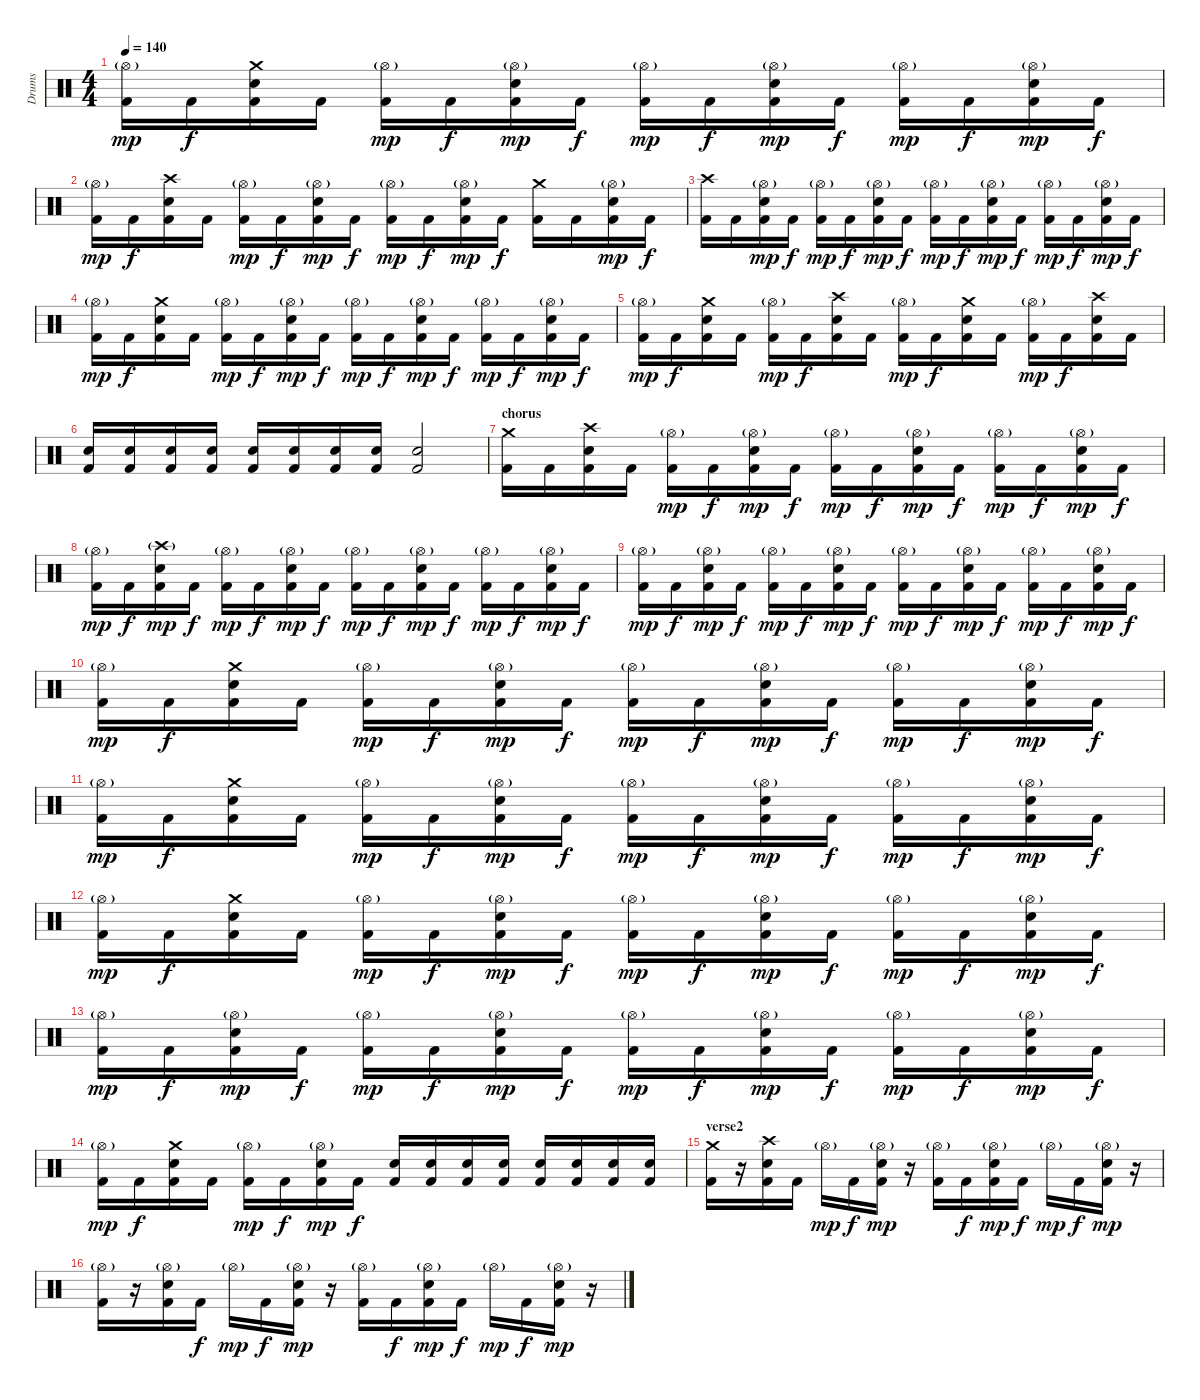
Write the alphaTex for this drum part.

\track ("Drums" "Drums") {instrument percussion}
\staff {score}
\articulation defaults
\ts (4 4)
\tempo 140
\clef neutral
\ks c
("Hi-Hat (open)"{g} "Kick (hit) 2").16{dy mp} "Kick (hit) 2".16{dy f} ("Crash medium (hit)" "Electric Snare (hit)" "Kick (hit) 2").16 "Kick (hit) 2".16 ("Hi-Hat (open)"{g} "Kick (hit) 2").16{dy mp} "Kick (hit) 2".16{dy f} ("Hi-Hat (open)"{g} "Electric Snare (hit)" "Kick (hit) 2").16{dy mp} "Kick (hit) 2".16{dy f} ("Hi-Hat (open)"{g} "Kick (hit) 2").16{dy mp} "Kick (hit) 2".16{dy f} ("Hi-Hat (open)"{g} "Electric Snare (hit)" "Kick (hit) 2").16{dy mp} "Kick (hit) 2".16{dy f} ("Hi-Hat (open)"{g} "Kick (hit) 2").16{dy mp} "Kick (hit) 2".16{dy f} ("Hi-Hat (open)"{g} "Electric Snare (hit)" "Kick (hit) 2").16{dy mp} "Kick (hit) 2".16{dy f} |
("Hi-Hat (open)"{g} "Kick (hit) 2").16{dy mp} "Kick (hit) 2".16{dy f} ("Crash high (hit)" "Electric Snare (hit)" "Kick (hit) 2").16 "Kick (hit) 2".16 ("Hi-Hat (open)"{g} "Kick (hit) 2").16{dy mp} "Kick (hit) 2".16{dy f} ("Hi-Hat (open)"{g} "Electric Snare (hit)" "Kick (hit) 2").16{dy mp} "Kick (hit) 2".16{dy f} ("Hi-Hat (open)"{g} "Kick (hit) 2").16{dy mp} "Kick (hit) 2".16{dy f} ("Hi-Hat (open)"{g} "Electric Snare (hit)" "Kick (hit) 2").16{dy mp} "Kick (hit) 2".16{dy f} ("Crash medium (hit)" "Kick (hit) 2").16 "Kick (hit) 2".16 ("Hi-Hat (open)"{g} "Electric Snare (hit)" "Kick (hit) 2").16{dy mp} "Kick (hit) 2".16{dy f} |
("Crash high (hit)" "Kick (hit) 2").16 "Kick (hit) 2".16 ("Hi-Hat (open)"{g} "Electric Snare (hit)" "Kick (hit) 2").16{dy mp} "Kick (hit) 2".16{dy f} ("Hi-Hat (open)"{g} "Kick (hit) 2").16{dy mp} "Kick (hit) 2".16{dy f} ("Hi-Hat (open)"{g} "Electric Snare (hit)" "Kick (hit) 2").16{dy mp} "Kick (hit) 2".16{dy f} ("Hi-Hat (open)"{g} "Kick (hit) 2").16{dy mp} "Kick (hit) 2".16{dy f} ("Hi-Hat (open)"{g} "Electric Snare (hit)" "Kick (hit) 2").16{dy mp} "Kick (hit) 2".16{dy f} ("Hi-Hat (open)"{g} "Kick (hit) 2").16{dy mp} "Kick (hit) 2".16{dy f} ("Hi-Hat (open)"{g} "Electric Snare (hit)" "Kick (hit) 2").16{dy mp} "Kick (hit) 2".16{dy f} |
("Hi-Hat (open)"{g} "Kick (hit) 2").16{dy mp} "Kick (hit) 2".16{dy f} ("Crash medium (hit)" "Electric Snare (hit)" "Kick (hit) 2").16 "Kick (hit) 2".16 ("Hi-Hat (open)"{g} "Kick (hit) 2").16{dy mp} "Kick (hit) 2".16{dy f} ("Hi-Hat (open)"{g} "Electric Snare (hit)" "Kick (hit) 2").16{dy mp} "Kick (hit) 2".16{dy f} ("Hi-Hat (open)"{g} "Kick (hit) 2").16{dy mp} "Kick (hit) 2".16{dy f} ("Hi-Hat (open)"{g} "Electric Snare (hit)" "Kick (hit) 2").16{dy mp} "Kick (hit) 2".16{dy f} ("Hi-Hat (open)"{g} "Kick (hit) 2").16{dy mp} "Kick (hit) 2".16{dy f} ("Hi-Hat (open)"{g} "Electric Snare (hit)" "Kick (hit) 2").16{dy mp} "Kick (hit) 2".16{dy f} |
("Hi-Hat (open)"{g} "Kick (hit) 2").16{dy mp} "Kick (hit) 2".16{dy f} ("Crash medium (hit)" "Electric Snare (hit)" "Kick (hit) 2").16 "Kick (hit) 2".16 ("Hi-Hat (open)"{g} "Kick (hit) 2").16{dy mp} "Kick (hit) 2".16{dy f} ("Crash high (hit)" "Electric Snare (hit)" "Kick (hit) 2").16 "Kick (hit) 2".16 ("Hi-Hat (open)"{g} "Kick (hit) 2").16{dy mp} "Kick (hit) 2".16{dy f} ("Crash medium (hit)" "Electric Snare (hit)" "Kick (hit) 2").16 "Kick (hit) 2".16 ("Hi-Hat (open)"{g} "Kick (hit) 2").16{dy mp} "Kick (hit) 2".16{dy f} ("Crash high (hit)" "Electric Snare (hit)" "Kick (hit) 2").16 "Kick (hit) 2".16 |
("Electric Snare (hit)" "Kick (hit) 2").16 ("Electric Snare (hit)" "Kick (hit) 2").16 ("Electric Snare (hit)" "Kick (hit) 2").16 ("Electric Snare (hit)" "Kick (hit) 2").16 ("Electric Snare (hit)" "Kick (hit) 2").16 ("Electric Snare (hit)" "Kick (hit) 2").16 ("Electric Snare (hit)" "Kick (hit) 2").16 ("Electric Snare (hit)" "Kick (hit) 2").16 ("Electric Snare (hit)" "Kick (hit) 2").2 |
\section ("" "chorus")
("Crash medium (hit)" "Kick (hit) 2").16 "Kick (hit) 2".16 ("Crash high (hit)" "Electric Snare (hit)" "Kick (hit) 2").16 "Kick (hit) 2".16 ("Hi-Hat (open)"{g} "Kick (hit) 2").16{dy mp} "Kick (hit) 2".16{dy f} ("Hi-Hat (open)"{g} "Electric Snare (hit)" "Kick (hit) 2").16{dy mp} "Kick (hit) 2".16{dy f} ("Hi-Hat (open)"{g} "Kick (hit) 2").16{dy mp} "Kick (hit) 2".16{dy f} ("Hi-Hat (open)"{g} "Electric Snare (hit)" "Kick (hit) 2").16{dy mp} "Kick (hit) 2".16{dy f} ("Hi-Hat (open)"{g} "Kick (hit) 2").16{dy mp} "Kick (hit) 2".16{dy f} ("Hi-Hat (open)"{g} "Electric Snare (hit)" "Kick (hit) 2").16{dy mp} "Kick (hit) 2".16{dy f} |
("Hi-Hat (open)"{g} "Kick (hit) 2").16{dy mp} "Kick (hit) 2".16{dy f} ("Crash high (hit)"{g} "Electric Snare (hit)" "Kick (hit) 2").16{dy mp} "Kick (hit) 2".16{dy f} ("Hi-Hat (open)"{g} "Kick (hit) 2").16{dy mp} "Kick (hit) 2".16{dy f} ("Hi-Hat (open)"{g} "Electric Snare (hit)" "Kick (hit) 2").16{dy mp} "Kick (hit) 2".16{dy f} ("Hi-Hat (open)"{g} "Kick (hit) 2").16{dy mp} "Kick (hit) 2".16{dy f} ("Hi-Hat (open)"{g} "Electric Snare (hit)" "Kick (hit) 2").16{dy mp} "Kick (hit) 2".16{dy f} ("Hi-Hat (open)"{g} "Kick (hit) 2").16{dy mp} "Kick (hit) 2".16{dy f} ("Hi-Hat (open)"{g} "Electric Snare (hit)" "Kick (hit) 2").16{dy mp} "Kick (hit) 2".16{dy f} |
("Hi-Hat (open)"{g} "Kick (hit) 2").16{dy mp} "Kick (hit) 2".16{dy f} ("Hi-Hat (open)"{g} "Electric Snare (hit)" "Kick (hit) 2").16{dy mp} "Kick (hit) 2".16{dy f} ("Hi-Hat (open)"{g} "Kick (hit) 2").16{dy mp} "Kick (hit) 2".16{dy f} ("Hi-Hat (open)"{g} "Electric Snare (hit)" "Kick (hit) 2").16{dy mp} "Kick (hit) 2".16{dy f} ("Hi-Hat (open)"{g} "Kick (hit) 2").16{dy mp} "Kick (hit) 2".16{dy f} ("Hi-Hat (open)"{g} "Electric Snare (hit)" "Kick (hit) 2").16{dy mp} "Kick (hit) 2".16{dy f} ("Hi-Hat (open)"{g} "Kick (hit) 2").16{dy mp} "Kick (hit) 2".16{dy f} ("Hi-Hat (open)"{g} "Electric Snare (hit)" "Kick (hit) 2").16{dy mp} "Kick (hit) 2".16{dy f} |
("Hi-Hat (open)"{g} "Kick (hit) 2").16{dy mp} "Kick (hit) 2".16{dy f} ("Crash medium (hit)" "Electric Snare (hit)" "Kick (hit) 2").16 "Kick (hit) 2".16 ("Hi-Hat (open)"{g} "Kick (hit) 2").16{dy mp} "Kick (hit) 2".16{dy f} ("Hi-Hat (open)"{g} "Electric Snare (hit)" "Kick (hit) 2").16{dy mp} "Kick (hit) 2".16{dy f} ("Hi-Hat (open)"{g} "Kick (hit) 2").16{dy mp} "Kick (hit) 2".16{dy f} ("Hi-Hat (open)"{g} "Electric Snare (hit)" "Kick (hit) 2").16{dy mp} "Kick (hit) 2".16{dy f} ("Hi-Hat (open)"{g} "Kick (hit) 2").16{dy mp} "Kick (hit) 2".16{dy f} ("Hi-Hat (open)"{g} "Electric Snare (hit)" "Kick (hit) 2").16{dy mp} "Kick (hit) 2".16{dy f} |
("Hi-Hat (open)"{g} "Kick (hit) 2").16{dy mp} "Kick (hit) 2".16{dy f} ("Crash medium (hit)" "Electric Snare (hit)" "Kick (hit) 2").16 "Kick (hit) 2".16 ("Hi-Hat (open)"{g} "Kick (hit) 2").16{dy mp} "Kick (hit) 2".16{dy f} ("Hi-Hat (open)"{g} "Electric Snare (hit)" "Kick (hit) 2").16{dy mp} "Kick (hit) 2".16{dy f} ("Hi-Hat (open)"{g} "Kick (hit) 2").16{dy mp} "Kick (hit) 2".16{dy f} ("Hi-Hat (open)"{g} "Electric Snare (hit)" "Kick (hit) 2").16{dy mp} "Kick (hit) 2".16{dy f} ("Hi-Hat (open)"{g} "Kick (hit) 2").16{dy mp} "Kick (hit) 2".16{dy f} ("Hi-Hat (open)"{g} "Electric Snare (hit)" "Kick (hit) 2").16{dy mp} "Kick (hit) 2".16{dy f} |
("Hi-Hat (open)"{g} "Kick (hit) 2").16{dy mp} "Kick (hit) 2".16{dy f} ("Crash medium (hit)" "Electric Snare (hit)" "Kick (hit) 2").16 "Kick (hit) 2".16 ("Hi-Hat (open)"{g} "Kick (hit) 2").16{dy mp} "Kick (hit) 2".16{dy f} ("Hi-Hat (open)"{g} "Electric Snare (hit)" "Kick (hit) 2").16{dy mp} "Kick (hit) 2".16{dy f} ("Hi-Hat (open)"{g} "Kick (hit) 2").16{dy mp} "Kick (hit) 2".16{dy f} ("Hi-Hat (open)"{g} "Electric Snare (hit)" "Kick (hit) 2").16{dy mp} "Kick (hit) 2".16{dy f} ("Hi-Hat (open)"{g} "Kick (hit) 2").16{dy mp} "Kick (hit) 2".16{dy f} ("Hi-Hat (open)"{g} "Electric Snare (hit)" "Kick (hit) 2").16{dy mp} "Kick (hit) 2".16{dy f} |
("Hi-Hat (open)"{g} "Kick (hit) 2").16{dy mp} "Kick (hit) 2".16{dy f} ("Hi-Hat (open)"{g} "Electric Snare (hit)" "Kick (hit) 2").16{dy mp} "Kick (hit) 2".16{dy f} ("Hi-Hat (open)"{g} "Kick (hit) 2").16{dy mp} "Kick (hit) 2".16{dy f} ("Hi-Hat (open)"{g} "Electric Snare (hit)" "Kick (hit) 2").16{dy mp} "Kick (hit) 2".16{dy f} ("Hi-Hat (open)"{g} "Kick (hit) 2").16{dy mp} "Kick (hit) 2".16{dy f} ("Hi-Hat (open)"{g} "Electric Snare (hit)" "Kick (hit) 2").16{dy mp} "Kick (hit) 2".16{dy f} ("Hi-Hat (open)"{g} "Kick (hit) 2").16{dy mp} "Kick (hit) 2".16{dy f} ("Hi-Hat (open)"{g} "Electric Snare (hit)" "Kick (hit) 2").16{dy mp} "Kick (hit) 2".16{dy f} |
("Hi-Hat (open)"{g} "Kick (hit) 2").16{dy mp} "Kick (hit) 2".16{dy f} ("Crash medium (hit)" "Electric Snare (hit)" "Kick (hit) 2").16 "Kick (hit) 2".16 ("Hi-Hat (open)"{g} "Kick (hit) 2").16{dy mp} "Kick (hit) 2".16{dy f} ("Hi-Hat (open)"{g} "Electric Snare (hit)" "Kick (hit) 2").16{dy mp} "Kick (hit) 2".16{dy f} ("Electric Snare (hit)" "Kick (hit) 2").16 ("Electric Snare (hit)" "Kick (hit) 2").16 ("Electric Snare (hit)" "Kick (hit) 2").16 ("Electric Snare (hit)" "Kick (hit) 2").16 ("Electric Snare (hit)" "Kick (hit) 2").16 ("Electric Snare (hit)" "Kick (hit) 2").16 ("Electric Snare (hit)" "Kick (hit) 2").16 ("Electric Snare (hit)" "Kick (hit) 2").16 |
\section ("" "verse2")
("Crash medium (hit)" "Kick (hit) 2").16 r.16 ("Crash high (hit)" "Electric Snare (hit)" "Kick (hit) 2").16 "Kick (hit) 2".16 "Hi-Hat (open)"{g}.16{dy mp} "Kick (hit) 2".16{dy f} ("Hi-Hat (open)"{g} "Electric Snare (hit)" "Kick (hit) 2").16{dy mp} r.16 ("Hi-Hat (open)"{g} "Kick (hit) 2").16 "Kick (hit) 2".16{dy f} ("Hi-Hat (open)"{g} "Electric Snare (hit)" "Kick (hit) 2").16{dy mp} "Kick (hit) 2".16{dy f} "Hi-Hat (open)"{g}.16{dy mp} "Kick (hit) 2".16{dy f} ("Hi-Hat (open)"{g} "Electric Snare (hit)" "Kick (hit) 2").16{dy mp} r.16 |
("Hi-Hat (open)"{g} "Kick (hit) 2").16 r.16 ("Hi-Hat (open)"{g} "Electric Snare (hit)" "Kick (hit) 2").16 "Kick (hit) 2".16{dy f} "Hi-Hat (open)"{g}.16{dy mp} "Kick (hit) 2".16{dy f} ("Hi-Hat (open)"{g} "Electric Snare (hit)" "Kick (hit) 2").16{dy mp} r.16 ("Hi-Hat (open)"{g} "Kick (hit) 2").16 "Kick (hit) 2".16{dy f} ("Hi-Hat (open)"{g} "Electric Snare (hit)" "Kick (hit) 2").16{dy mp} "Kick (hit) 2".16{dy f} "Hi-Hat (open)"{g}.16{dy mp} "Kick (hit) 2".16{dy f} ("Hi-Hat (open)"{g} "Electric Snare (hit)" "Kick (hit) 2").16{dy mp} r.16
